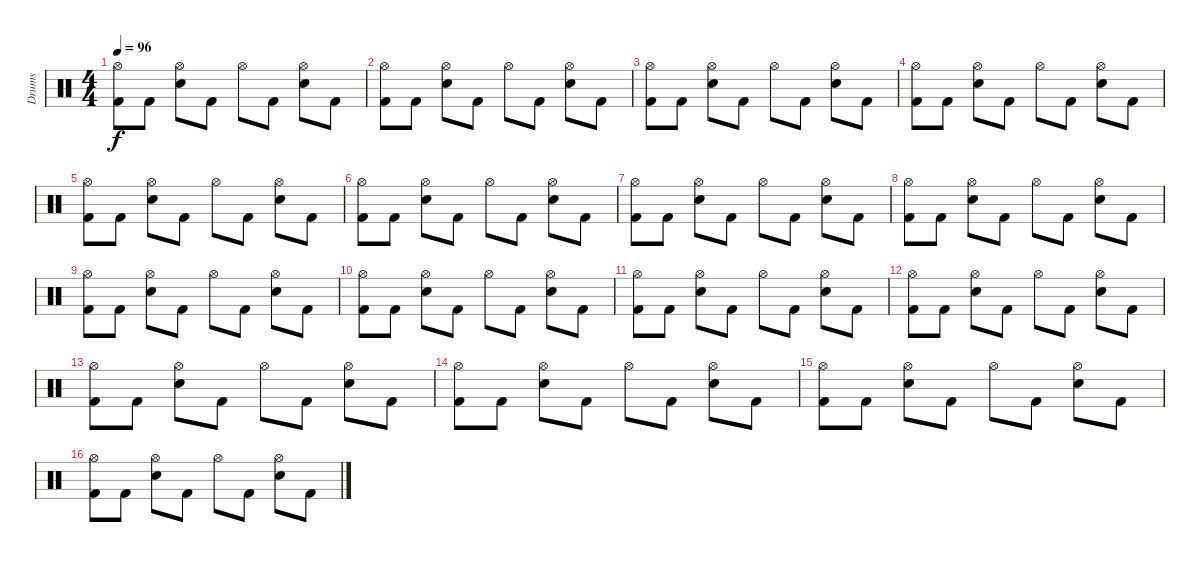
\track ("Drums" "Drums") {instrument percussion}
\staff {score}
\articulation defaults
\ts (4 4)
\tempo 96
\clef neutral
\ks c
("Hi-Hat (open)" "Kick (hit) 2").8{dy f} "Kick (hit) 2".8 ("Hi-Hat (open)" "Snare (hit) 2").8 "Kick (hit) 2".8 "Hi-Hat (open)".8 "Kick (hit) 2".8 ("Hi-Hat (open)" "Snare (hit) 2").8 "Kick (hit) 2".8 |
("Hi-Hat (open)" "Kick (hit) 2").8 "Kick (hit) 2".8 ("Hi-Hat (open)" "Snare (hit) 2").8 "Kick (hit) 2".8 "Hi-Hat (open)".8 "Kick (hit) 2".8 ("Hi-Hat (open)" "Snare (hit) 2").8 "Kick (hit) 2".8 |
("Hi-Hat (open)" "Kick (hit) 2").8 "Kick (hit) 2".8 ("Hi-Hat (open)" "Snare (hit) 2").8 "Kick (hit) 2".8 "Hi-Hat (open)".8 "Kick (hit) 2".8 ("Hi-Hat (open)" "Snare (hit) 2").8 "Kick (hit) 2".8 |
("Hi-Hat (open)" "Kick (hit) 2").8 "Kick (hit) 2".8 ("Hi-Hat (open)" "Snare (hit) 2").8 "Kick (hit) 2".8 "Hi-Hat (open)".8 "Kick (hit) 2".8 ("Hi-Hat (open)" "Snare (hit) 2").8 "Kick (hit) 2".8 |
("Hi-Hat (open)" "Kick (hit) 2").8 "Kick (hit) 2".8 ("Hi-Hat (open)" "Snare (hit) 2").8 "Kick (hit) 2".8 "Hi-Hat (open)".8 "Kick (hit) 2".8 ("Hi-Hat (open)" "Snare (hit) 2").8 "Kick (hit) 2".8 |
("Hi-Hat (open)" "Kick (hit) 2").8 "Kick (hit) 2".8 ("Hi-Hat (open)" "Snare (hit) 2").8 "Kick (hit) 2".8 "Hi-Hat (open)".8 "Kick (hit) 2".8 ("Hi-Hat (open)" "Snare (hit) 2").8 "Kick (hit) 2".8 |
("Hi-Hat (open)" "Kick (hit) 2").8 "Kick (hit) 2".8 ("Hi-Hat (open)" "Snare (hit) 2").8 "Kick (hit) 2".8 "Hi-Hat (open)".8 "Kick (hit) 2".8 ("Hi-Hat (open)" "Snare (hit) 2").8 "Kick (hit) 2".8 |
("Hi-Hat (open)" "Kick (hit) 2").8 "Kick (hit) 2".8 ("Hi-Hat (open)" "Snare (hit) 2").8 "Kick (hit) 2".8 "Hi-Hat (open)".8 "Kick (hit) 2".8 ("Hi-Hat (open)" "Snare (hit) 2").8 "Kick (hit) 2".8 |
("Hi-Hat (open)" "Kick (hit) 2").8 "Kick (hit) 2".8 ("Hi-Hat (open)" "Snare (hit) 2").8 "Kick (hit) 2".8 "Hi-Hat (open)".8 "Kick (hit) 2".8 ("Hi-Hat (open)" "Snare (hit) 2").8 "Kick (hit) 2".8 |
("Hi-Hat (open)" "Kick (hit) 2").8 "Kick (hit) 2".8 ("Hi-Hat (open)" "Snare (hit) 2").8 "Kick (hit) 2".8 "Hi-Hat (open)".8 "Kick (hit) 2".8 ("Hi-Hat (open)" "Snare (hit) 2").8 "Kick (hit) 2".8 |
("Hi-Hat (open)" "Kick (hit) 2").8 "Kick (hit) 2".8 ("Hi-Hat (open)" "Snare (hit) 2").8 "Kick (hit) 2".8 "Hi-Hat (open)".8 "Kick (hit) 2".8 ("Hi-Hat (open)" "Snare (hit) 2").8 "Kick (hit) 2".8 |
("Hi-Hat (open)" "Kick (hit) 2").8 "Kick (hit) 2".8 ("Hi-Hat (open)" "Snare (hit) 2").8 "Kick (hit) 2".8 "Hi-Hat (open)".8 "Kick (hit) 2".8 ("Hi-Hat (open)" "Snare (hit) 2").8 "Kick (hit) 2".8 |
("Hi-Hat (open)" "Kick (hit) 2").8 "Kick (hit) 2".8 ("Hi-Hat (open)" "Snare (hit) 2").8 "Kick (hit) 2".8 "Hi-Hat (open)".8 "Kick (hit) 2".8 ("Hi-Hat (open)" "Snare (hit) 2").8 "Kick (hit) 2".8 |
("Hi-Hat (open)" "Kick (hit) 2").8 "Kick (hit) 2".8 ("Hi-Hat (open)" "Snare (hit) 2").8 "Kick (hit) 2".8 "Hi-Hat (open)".8 "Kick (hit) 2".8 ("Hi-Hat (open)" "Snare (hit) 2").8 "Kick (hit) 2".8 |
("Hi-Hat (open)" "Kick (hit) 2").8 "Kick (hit) 2".8 ("Hi-Hat (open)" "Snare (hit) 2").8 "Kick (hit) 2".8 "Hi-Hat (open)".8 "Kick (hit) 2".8 ("Hi-Hat (open)" "Snare (hit) 2").8 "Kick (hit) 2".8 |
("Hi-Hat (open)" "Kick (hit) 2").8 "Kick (hit) 2".8 ("Hi-Hat (open)" "Snare (hit) 2").8 "Kick (hit) 2".8 "Hi-Hat (open)".8 "Kick (hit) 2".8 ("Hi-Hat (open)" "Snare (hit) 2").8 "Kick (hit) 2".8
